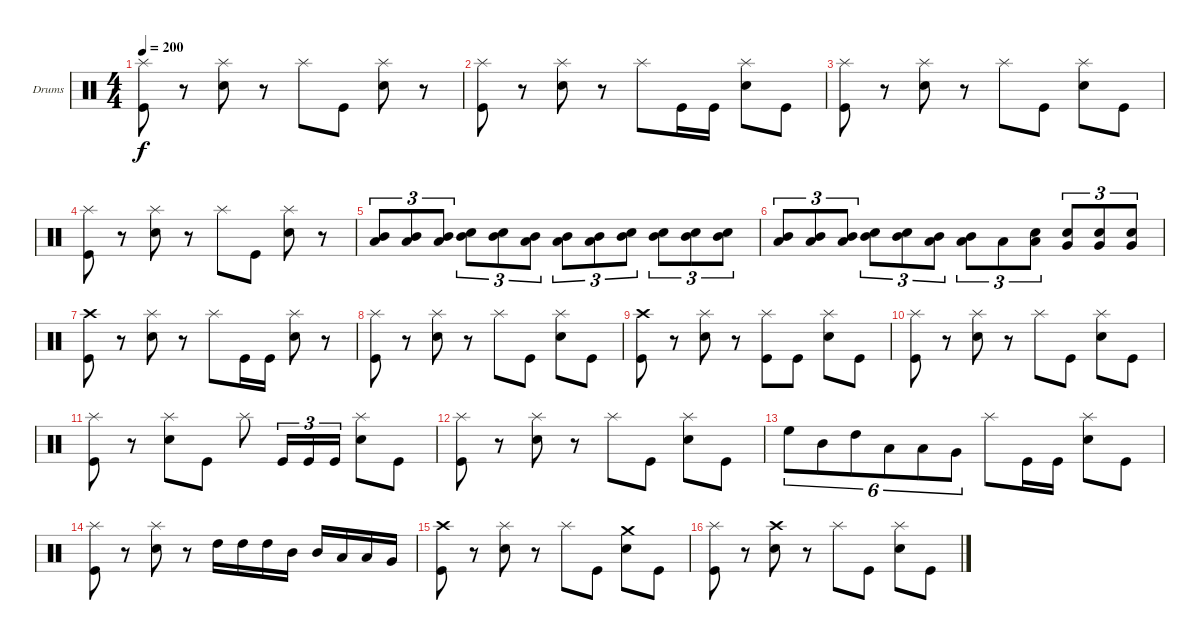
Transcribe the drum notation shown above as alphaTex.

\bracketExtendMode groupsimilarinstruments
\firstSystemTrackNameOrientation horizontal
\otherSystemsTrackNameOrientation horizontal
\track ("Drumkit" "Drums") {instrument percussion}
\staff {score}
\articulation defaults
\ts (4 4)
\tempo 200
\clef neutral
\ks c
("Splash (hit)" "Kick (hit)").8{dy f} r.8 ("Splash (hit)" "Snare (hit) 2").8 r.8 "Splash (hit)".8 "Kick (hit)".8 ("Splash (hit)" "Snare (hit) 2").8 r.8 |
("Splash (hit)" "Kick (hit)").8 r.8 ("Splash (hit)" "Snare (hit) 2").8 r.8 "Splash (hit)".8 "Kick (hit)".16 "Kick (hit)".16 ("Splash (hit)" "Snare (hit) 2").8 "Kick (hit)".8 |
("Splash (hit)" "Kick (hit)").8 r.8 ("Splash (hit)" "Snare (hit) 2").8 r.8 "Splash (hit)".8 "Kick (hit)".8 ("Splash (hit)" "Snare (hit) 2").8 "Kick (hit)".8 |
("Splash (hit)" "Kick (hit)").8 r.8 ("Splash (hit)" "Snare (hit) 2").8 r.8 "Splash (hit)".8 "Kick (hit)".8 ("Splash (hit)" "Snare (hit) 2").8 r.8 |
("Mid Tom (hit)" "Low Tom (hit)").8{tu (3 2)} ("Mid Tom (hit)" "Low Tom (hit)").8{tu (3 2)} ("Mid Tom (hit)" "Low Tom (hit)").8{tu (3 2)} ("Mid Tom (hit)" "Snare (hit) 2").8{tu (3 2)} ("Mid Tom (hit)" "Snare (hit) 2").8{tu (3 2)} ("Mid Tom (hit)" "Low Tom (hit)").8{tu (3 2)} ("Mid Tom (hit)" "Low Tom (hit)").8{tu (3 2)} ("Mid Tom (hit)" "Low Tom (hit)").8{tu (3 2)} ("Mid Tom (hit)" "Snare (hit) 2").8{tu (3 2)} ("Mid Tom (hit)" "Snare (hit) 2").8{tu (3 2)} ("Mid Tom (hit)" "Snare (hit) 2").8{tu (3 2)} ("Mid Tom (hit)" "Snare (hit) 2").8{tu (3 2)} |
("Mid Tom (hit)" "Low Tom (hit)").8{tu (3 2)} ("Mid Tom (hit)" "Low Tom (hit)").8{tu (3 2)} ("Mid Tom (hit)" "Low Tom (hit)").8{tu (3 2)} ("Mid Tom (hit)" "Snare (hit) 2").8{tu (3 2)} ("Mid Tom (hit)" "Snare (hit) 2").8{tu (3 2)} ("Mid Tom (hit)" "Low Tom (hit)").8{tu (3 2)} ("Mid Tom (hit)" "Low Tom (hit)").8{tu (3 2)} "Low Tom (hit)".8{tu (3 2)} ("Low Tom (hit)" "Snare (hit) 2").8{tu (3 2)} ("Very Low Tom (hit)" "Snare (hit) 2").8{tu (3 2)} ("Very Low Tom (hit)" "Snare (hit) 2").8{tu (3 2)} ("Very Low Tom (hit)" "Snare (hit) 2").8{tu (3 2)} |
("Crash high (hit)" "Kick (hit)").8 r.8 ("Splash (hit)" "Snare (hit) 2").8 r.8 "Splash (hit)".8 "Kick (hit)".16 "Kick (hit)".16 ("Splash (hit)" "Snare (hit) 2").8 r.8 |
("Splash (hit)" "Kick (hit)").8 r.8 ("Splash (hit)" "Snare (hit) 2").8 r.8 "Splash (hit)".8 "Kick (hit)".8 ("Splash (hit)" "Snare (hit) 2").8 "Kick (hit)".8 |
("Crash high (hit)" "Kick (hit)").8 r.8 ("Splash (hit)" "Snare (hit) 2").8 r.8 ("Splash (hit)" "Kick (hit)").8 "Kick (hit)".8 ("Splash (hit)" "Snare (hit) 2").8 "Kick (hit)".8 |
("Splash (hit)" "Kick (hit)").8 r.8 ("Splash (hit)" "Snare (hit) 2").8 r.8 "Splash (hit)".8 "Kick (hit)".8 ("Splash (hit)" "Snare (hit) 2").8 "Kick (hit)".8 |
("Splash (hit)" "Kick (hit)").8 r.8 ("Splash (hit)" "Snare (hit) 2").8 "Kick (hit)".8 "Splash (hit)".8 "Kick (hit)".16{tu (3 2)} "Kick (hit)".16{tu (3 2)} "Kick (hit)".16{tu (3 2)} ("Splash (hit)" "Snare (hit) 2").8 "Kick (hit)".8 |
("Splash (hit)" "Kick (hit)").8 r.8 ("Splash (hit)" "Snare (hit) 2").8 r.8 "Splash (hit)".8 "Kick (hit)".8 ("Splash (hit)" "Snare (hit) 2").8 "Kick (hit)".8 |
"High Floor Tom (hit)".8{tu (6 4)} "Mid Tom (hit)".8{tu (6 4)} "High Tom (hit)".8{tu (6 4)} "Low Tom (hit)".8{tu (6 4)} "Low Tom (hit)".8{tu (6 4)} "Very Low Tom (hit)".8{tu (6 4)} "Splash (hit)".8 "Kick (hit)".16 "Kick (hit)".16 ("Splash (hit)" "Snare (hit) 2").8 "Kick (hit)".8 |
("Splash (hit)" "Kick (hit)").8 r.8 ("Splash (hit)" "Snare (hit) 2").8 r.8 "High Tom (hit)".16 "High Tom (hit)".16 "High Tom (hit)".16 "Mid Tom (hit)".16 "Mid Tom (hit)".16 "Low Tom (hit)".16 "Low Tom (hit)".16 "Very Low Tom (hit)".16 |
("Crash high (hit)" "Kick (hit)").8 r.8 ("Splash (hit)" "Snare (hit) 2").8 r.8 "Splash (hit)".8 "Kick (hit)".8 ("Crash medium (hit)" "Snare (hit) 2").8 "Kick (hit)".8 |
("Splash (hit)" "Kick (hit)").8 r.8 ("Crash high (hit)" "Snare (hit) 2").8 r.8 "Splash (hit)".8 "Kick (hit)".8 ("Splash (hit)" "Snare (hit) 2").8 "Kick (hit)".8
